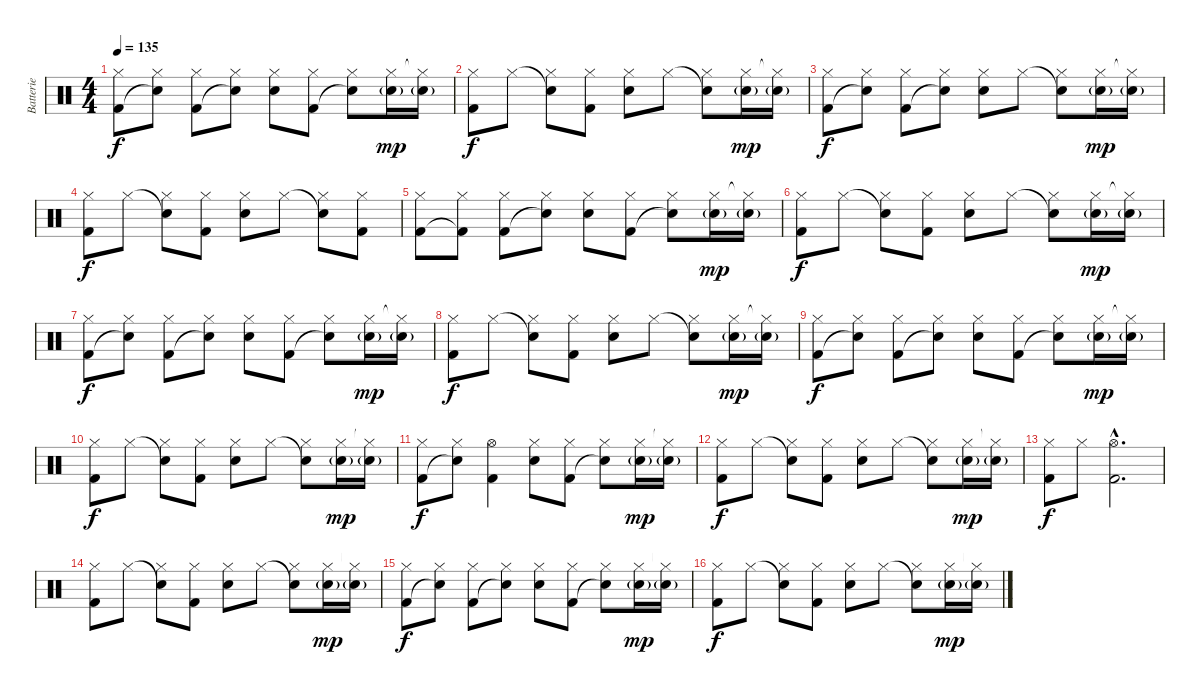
\track ("Batterie" "Batterie") {instrument percussion}
\staff {score}
\articulation defaults
\ts (4 4)
\tempo 135
\clef neutral
\ks c
("Kick (hit) 2" "Hi-Hat (closed)").8{dy f} ("Snare (hit)"{t} "Hi-Hat (closed)").8 ("Kick (hit) 2" "Hi-Hat (closed)").8 ("Snare (hit) 2"{t} "Hi-Hat (closed)").8 ("Snare (hit) 2" "Hi-Hat (closed)").8 ("Kick (hit) 2" "Hi-Hat (closed)").8 ("Snare (hit)"{t} "Hi-Hat (closed)").8 ("Snare (hit) 2"{g} "Hi-Hat (closed)").16{dy mp} ("Snare (hit) 2"{g} "Hi-Hat (closed)"{t}).16 |
("Kick (hit) 2" "Hi-Hat (closed)").8{dy f} "Hi-Hat (closed)".8 ("Snare (hit)"{t} "Hi-Hat (closed)").8 ("Kick (hit) 2" "Hi-Hat (closed)").8 ("Snare (hit) 2" "Hi-Hat (closed)").8 "Hi-Hat (closed)".8 ("Snare (hit)"{t} "Hi-Hat (closed)").8 ("Snare (hit) 2"{g} "Hi-Hat (closed)").16{dy mp} ("Snare (hit) 2"{g} "Hi-Hat (closed)"{t}).16 |
("Kick (hit) 2" "Hi-Hat (closed)").8{dy f} ("Snare (hit)"{t} "Hi-Hat (closed)").8 ("Kick (hit) 2" "Hi-Hat (closed)").8 ("Snare (hit) 2"{t} "Hi-Hat (closed)").8 ("Snare (hit) 2" "Hi-Hat (closed)").8 "Hi-Hat (closed)".8 ("Snare (hit)"{t} "Hi-Hat (closed)").8 ("Snare (hit) 2"{g} "Hi-Hat (closed)").16{dy mp} ("Snare (hit) 2"{g} "Hi-Hat (closed)"{t}).16 |
("Kick (hit) 2" "Hi-Hat (closed)").8{dy f} "Hi-Hat (closed)".8 ("Snare (hit)"{t} "Hi-Hat (closed)").8 ("Kick (hit) 2" "Hi-Hat (closed)").8 ("Snare (hit) 2" "Hi-Hat (closed)").8 "Hi-Hat (closed)".8 ("Snare (hit)"{t} "Hi-Hat (closed)").8 ("Kick (hit) 2" "Hi-Hat (closed)").8 |
("Kick (hit) 2" "Hi-Hat (closed)").8 ("Kick (hit) 2"{t} "Hi-Hat (closed)").8 ("Kick (hit) 2" "Hi-Hat (closed)").8 ("Snare (hit)"{t} "Hi-Hat (closed)").8 ("Snare (hit) 2" "Hi-Hat (closed)").8 ("Kick (hit) 2" "Hi-Hat (closed)").8 ("Snare (hit)"{t} "Hi-Hat (closed)").8 ("Snare (hit) 2"{g} "Hi-Hat (closed)").16{dy mp} ("Snare (hit) 2"{g} "Hi-Hat (closed)"{t}).16 |
("Kick (hit) 2" "Hi-Hat (closed)").8{dy f} "Hi-Hat (closed)".8 ("Snare (hit)"{t} "Hi-Hat (closed)").8 ("Kick (hit) 2" "Hi-Hat (closed)").8 ("Snare (hit) 2" "Hi-Hat (closed)").8 "Hi-Hat (closed)".8 ("Snare (hit)"{t} "Hi-Hat (closed)").8 ("Snare (hit) 2"{g} "Hi-Hat (closed)").16{dy mp} ("Snare (hit) 2"{g} "Hi-Hat (closed)"{t}).16 |
("Kick (hit) 2" "Hi-Hat (closed)").8{dy f} ("Snare (hit)"{t} "Hi-Hat (closed)").8 ("Kick (hit) 2" "Hi-Hat (closed)").8 ("Snare (hit) 2"{t} "Hi-Hat (closed)").8 ("Snare (hit) 2" "Hi-Hat (closed)").8 ("Kick (hit) 2" "Hi-Hat (closed)").8 ("Snare (hit)"{t} "Hi-Hat (closed)").8 ("Snare (hit) 2"{g} "Hi-Hat (closed)").16{dy mp} ("Snare (hit) 2"{g} "Hi-Hat (closed)"{t}).16 |
("Kick (hit) 2" "Hi-Hat (closed)").8{dy f} "Hi-Hat (closed)".8 ("Snare (hit)"{t} "Hi-Hat (closed)").8 ("Kick (hit) 2" "Hi-Hat (closed)").8 ("Snare (hit) 2" "Hi-Hat (closed)").8 "Hi-Hat (closed)".8 ("Snare (hit)"{t} "Hi-Hat (closed)").8 ("Snare (hit) 2"{g} "Hi-Hat (closed)").16{dy mp} ("Snare (hit) 2"{g} "Hi-Hat (closed)"{t}).16 |
("Kick (hit) 2" "Hi-Hat (closed)").8{dy f} ("Snare (hit)"{t} "Hi-Hat (closed)").8 ("Kick (hit) 2" "Hi-Hat (closed)").8 ("Snare (hit) 2"{t} "Hi-Hat (closed)").8 ("Snare (hit) 2" "Hi-Hat (closed)").8 ("Kick (hit) 2" "Hi-Hat (closed)").8 ("Snare (hit)"{t} "Hi-Hat (closed)").8 ("Snare (hit) 2"{g} "Hi-Hat (closed)").16{dy mp} ("Snare (hit) 2"{g} "Hi-Hat (closed)"{t}).16 |
("Kick (hit) 2" "Hi-Hat (closed)").8{dy f} "Hi-Hat (closed)".8 ("Snare (hit)"{t} "Hi-Hat (closed)").8 ("Kick (hit) 2" "Hi-Hat (closed)").8 ("Snare (hit) 2" "Hi-Hat (closed)").8 "Hi-Hat (closed)".8 ("Snare (hit)"{t} "Hi-Hat (closed)").8 ("Snare (hit) 2"{g} "Hi-Hat (closed)").16{dy mp} ("Snare (hit) 2"{g} "Hi-Hat (closed)"{t}).16 |
("Kick (hit) 2" "Hi-Hat (closed)").8{dy f} ("Snare (hit)"{t} "Hi-Hat (closed)").8 ("Kick (hit) 2" "Hi-Hat (open)").4 ("Snare (hit) 2" "Hi-Hat (closed)").8 ("Kick (hit) 2" "Hi-Hat (closed)").8 ("Snare (hit)"{t} "Hi-Hat (closed)").8 ("Snare (hit) 2"{g} "Hi-Hat (closed)").16{dy mp} ("Snare (hit) 2"{g} "Hi-Hat (closed)"{t}).16 |
("Kick (hit) 2" "Hi-Hat (closed)").8{dy f} "Hi-Hat (closed)".8 ("Snare (hit)"{t} "Hi-Hat (closed)").8 ("Kick (hit) 2" "Hi-Hat (closed)").8 ("Snare (hit) 2" "Hi-Hat (closed)").8 "Hi-Hat (closed)".8 ("Snare (hit)"{t} "Hi-Hat (closed)").8 ("Snare (hit) 2"{g} "Hi-Hat (closed)").16{dy mp} ("Snare (hit) 2"{g} "Hi-Hat (closed)"{t}).16 |
("Kick (hit) 2" "Hi-Hat (closed)").8{dy f} "Hi-Hat (closed)".8 ("Kick (hit) 2"{hac} "Hi-Hat (open)"{hac}).2{d} |
("Kick (hit) 2" "Hi-Hat (closed)").8 "Hi-Hat (closed)".8 ("Snare (hit)"{t} "Hi-Hat (closed)").8 ("Kick (hit) 2" "Hi-Hat (closed)").8 ("Snare (hit) 2" "Hi-Hat (closed)").8 "Hi-Hat (closed)".8 ("Snare (hit)"{t} "Hi-Hat (closed)").8 ("Snare (hit) 2"{g} "Hi-Hat (closed)").16{dy mp} ("Snare (hit) 2"{g} "Hi-Hat (closed)"{t}).16 |
("Kick (hit) 2" "Hi-Hat (closed)").8{dy f} ("Snare (hit)"{t} "Hi-Hat (closed)").8 ("Kick (hit) 2" "Hi-Hat (closed)").8 ("Snare (hit) 2"{t} "Hi-Hat (closed)").8 ("Snare (hit) 2" "Hi-Hat (closed)").8 ("Kick (hit) 2" "Hi-Hat (closed)").8 ("Snare (hit)"{t} "Hi-Hat (closed)").8 ("Snare (hit) 2"{g} "Hi-Hat (closed)").16{dy mp} ("Snare (hit) 2"{g} "Hi-Hat (closed)"{t}).16 |
("Kick (hit) 2" "Hi-Hat (closed)").8{dy f} "Hi-Hat (closed)".8 ("Snare (hit)"{t} "Hi-Hat (closed)").8 ("Kick (hit) 2" "Hi-Hat (closed)").8 ("Snare (hit) 2" "Hi-Hat (closed)").8 "Hi-Hat (closed)".8 ("Snare (hit)"{t} "Hi-Hat (closed)").8 ("Snare (hit) 2"{g} "Hi-Hat (closed)").16{dy mp} ("Snare (hit) 2"{g} "Hi-Hat (closed)"{t}).16
